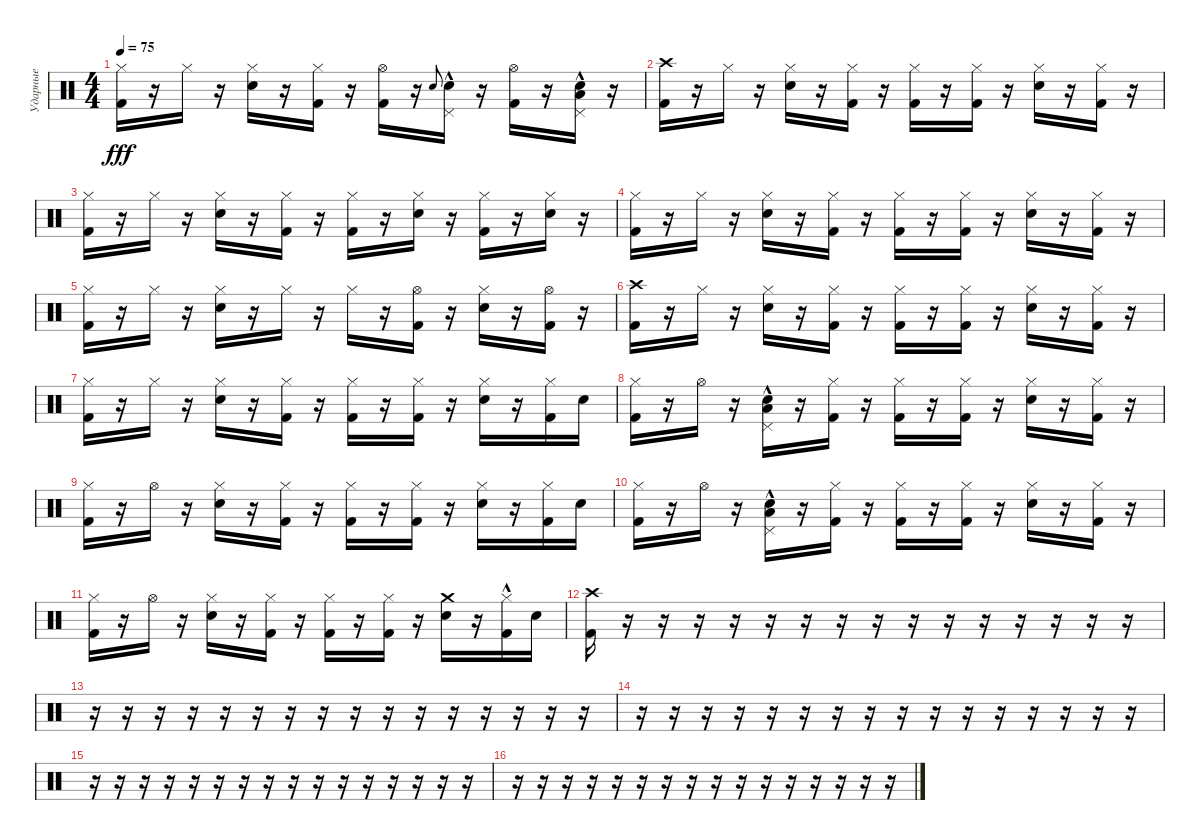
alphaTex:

\track ("Ударные" "Ударные") {instrument percussion}
\staff {score}
\articulation defaults
\ts (4 4)
\tempo 75
\clef neutral
\ks c
("Hi-Hat (closed)" "Kick (hit) 2").16{dy fff} r.16 "Hi-Hat (closed)".16 r.16 ("Hi-Hat (closed)" "Electric Snare (hit)").16 r.16 ("Hi-Hat (closed)" "Kick (hit) 2").16 r.16 ("Hi-Hat (open)" "Kick (hit) 2").16 r.16 "Electric Snare (hit)".8{gr onbeat} ("Pedal Hi-Hat (hit)"{hac} "Electric Snare (hit)"{hac}).16 r.16 ("Hi-Hat (open)" "Kick (hit) 2").16 r.16 ("Pedal Hi-Hat (hit)"{hac} "Electric Snare (hit)"{hac} "Low Floor Tom (hit)"{hac}).16 r.16 |
("Crash high (hit)" "Kick (hit) 2").16 r.16 "Hi-Hat (closed)".16 r.16 ("Hi-Hat (closed)" "Electric Snare (hit)").16 r.16 ("Hi-Hat (closed)" "Kick (hit) 2").16 r.16 ("Hi-Hat (closed)" "Kick (hit) 2").16 r.16 ("Hi-Hat (closed)" "Kick (hit) 2").16 r.16 ("Hi-Hat (closed)" "Electric Snare (hit)").16 r.16 ("Hi-Hat (closed)" "Kick (hit) 2").16 r.16 |
("Hi-Hat (closed)" "Kick (hit) 2").16 r.16 "Hi-Hat (closed)".16 r.16 ("Hi-Hat (closed)" "Electric Snare (hit)").16 r.16 ("Hi-Hat (closed)" "Kick (hit) 2").16 r.16 ("Hi-Hat (closed)" "Kick (hit) 2").16 r.16 ("Hi-Hat (closed)" "Electric Snare (hit)").16 r.16 ("Hi-Hat (closed)" "Kick (hit) 2").16 r.16 ("Hi-Hat (closed)" "Electric Snare (hit)").16 r.16 |
("Hi-Hat (closed)" "Kick (hit) 2").16 r.16 "Hi-Hat (closed)".16 r.16 ("Hi-Hat (closed)" "Electric Snare (hit)").16 r.16 ("Hi-Hat (closed)" "Kick (hit) 2").16 r.16 ("Hi-Hat (closed)" "Kick (hit) 2").16 r.16 ("Hi-Hat (closed)" "Kick (hit) 2").16 r.16 ("Hi-Hat (closed)" "Electric Snare (hit)").16 r.16 ("Hi-Hat (closed)" "Kick (hit) 2").16 r.16 |
("Hi-Hat (closed)" "Kick (hit) 2").16 r.16 "Hi-Hat (closed)".16 r.16 ("Hi-Hat (closed)" "Electric Snare (hit)").16 r.16 "Hi-Hat (closed)".16 r.16 "Hi-Hat (closed)".16 r.16 ("Hi-Hat (open)" "Kick (hit) 2").16 r.16 ("Hi-Hat (closed)" "Electric Snare (hit)").16 r.16 ("Hi-Hat (open)" "Kick (hit) 2").16 r.16 |
("Crash high (hit)" "Kick (hit) 2").16 r.16 "Hi-Hat (closed)".16 r.16 ("Hi-Hat (closed)" "Electric Snare (hit)").16 r.16 ("Hi-Hat (closed)" "Kick (hit) 2").16 r.16 ("Hi-Hat (closed)" "Kick (hit) 2").16 r.16 ("Hi-Hat (closed)" "Kick (hit) 2").16 r.16 ("Hi-Hat (closed)" "Electric Snare (hit)").16 r.16 ("Hi-Hat (closed)" "Kick (hit) 2").16 r.16 |
("Hi-Hat (closed)" "Kick (hit) 2").16 r.16 "Hi-Hat (closed)".16 r.16 ("Hi-Hat (closed)" "Electric Snare (hit)").16 r.16 ("Hi-Hat (closed)" "Kick (hit) 2").16 r.16 ("Hi-Hat (closed)" "Kick (hit) 2").16 r.16 ("Hi-Hat (closed)" "Kick (hit) 2").16 r.16 ("Hi-Hat (closed)" "Electric Snare (hit)").16 r.16 ("Hi-Hat (closed)" "Kick (hit) 2").16 "Electric Snare (hit)".16 |
("Hi-Hat (closed)" "Kick (hit) 2").16 r.16 "Hi-Hat (open)".16 r.16 ("Pedal Hi-Hat (hit)"{hac} "Electric Snare (hit)"{hac} "Low Floor Tom (hit)"{hac}).16 r.16 ("Hi-Hat (closed)" "Kick (hit) 2").16 r.16 ("Hi-Hat (closed)" "Kick (hit) 2").16 r.16 ("Hi-Hat (closed)" "Kick (hit) 2").16 r.16 ("Hi-Hat (closed)" "Electric Snare (hit)").16 r.16 ("Hi-Hat (closed)" "Kick (hit) 2").16 r.16 |
("Hi-Hat (closed)" "Kick (hit) 2").16 r.16 "Hi-Hat (open)".16 r.16 ("Hi-Hat (closed)" "Electric Snare (hit)").16 r.16 ("Hi-Hat (closed)" "Kick (hit) 2").16 r.16 ("Hi-Hat (closed)" "Kick (hit) 2").16 r.16 ("Hi-Hat (closed)" "Kick (hit) 2").16 r.16 ("Hi-Hat (closed)" "Electric Snare (hit)").16 r.16 ("Hi-Hat (closed)" "Kick (hit) 2").16 "Electric Snare (hit)".16 |
("Hi-Hat (closed)" "Kick (hit) 2").16 r.16 "Hi-Hat (open)".16 r.16 ("Pedal Hi-Hat (hit)"{hac} "Electric Snare (hit)"{hac} "Low Floor Tom (hit)"{hac}).16 r.16 ("Hi-Hat (closed)" "Kick (hit) 2").16 r.16 ("Hi-Hat (closed)" "Kick (hit) 2").16 r.16 ("Hi-Hat (closed)" "Kick (hit) 2").16 r.16 ("Hi-Hat (closed)" "Electric Snare (hit)").16 r.16 ("Hi-Hat (closed)" "Kick (hit) 2").16 r.16 |
("Hi-Hat (closed)" "Kick (hit) 2").16 r.16 "Hi-Hat (open)".16 r.16 ("Hi-Hat (closed)" "Electric Snare (hit)").16 r.16 ("Hi-Hat (closed)" "Kick (hit) 2").16 r.16 ("Hi-Hat (closed)" "Kick (hit) 2").16 r.16 ("Hi-Hat (closed)" "Kick (hit) 2").16 r.16 ("Crash medium (hit)" "Electric Snare (hit)").16 r.16 ("Hi-Hat (closed)"{hac} "Kick (hit) 2").16 "Electric Snare (hit)".16 |
("Crash high (hit)" "Kick (hit) 2").16 r.16 r.16 r.16 r.16 r.16 r.16 r.16 r.16 r.16 r.16 r.16 r.16 r.16 r.16 r.16 |
r.16 r.16 r.16 r.16 r.16 r.16 r.16 r.16 r.16 r.16 r.16 r.16 r.16 r.16 r.16 r.16 |
r.16 r.16 r.16 r.16 r.16 r.16 r.16 r.16 r.16 r.16 r.16 r.16 r.16 r.16 r.16 r.16 |
r.16 r.16 r.16 r.16 r.16 r.16 r.16 r.16 r.16 r.16 r.16 r.16 r.16 r.16 r.16 r.16 |
r.16 r.16 r.16 r.16 r.16 r.16 r.16 r.16 r.16 r.16 r.16 r.16 r.16 r.16 r.16 r.16
